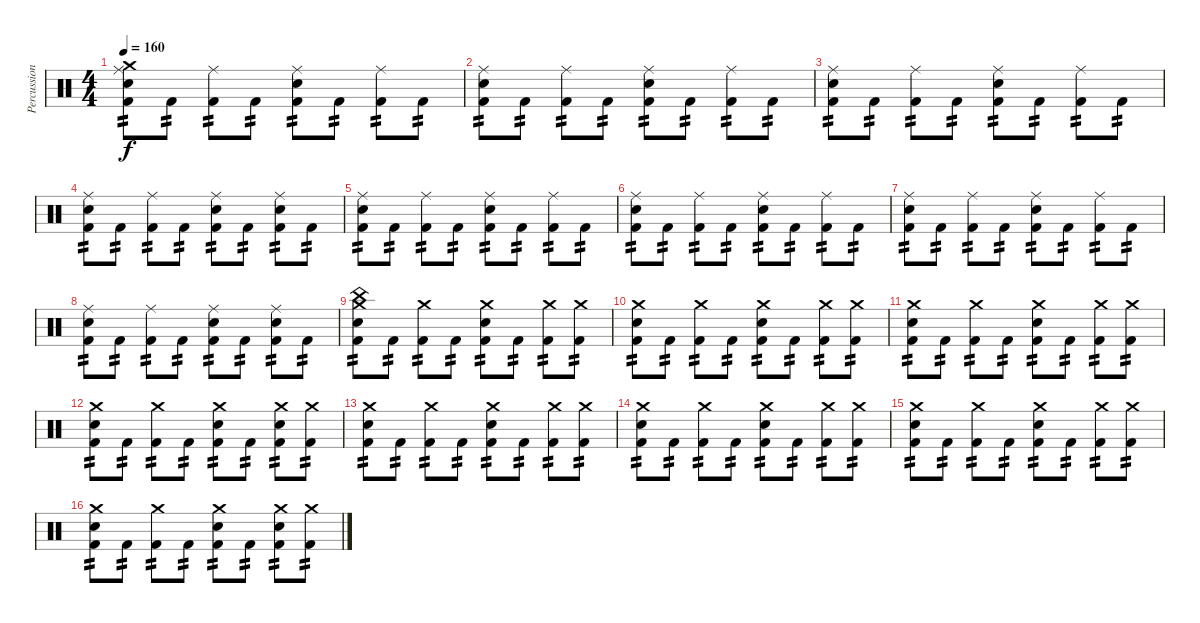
\track ("Percussion" "Percussion") {instrument percussion}
\staff {score}
\articulation defaults
\ts (4 4)
\tempo 160
\clef neutral
\ks c
("Kick (hit) 2" "Electric Snare (hit)" "Ride (middle)" "Crash medium (hit)").8{tp 2 dy f} "Kick (hit) 2".8{tp 2} ("Kick (hit) 2" "Ride (middle)").8{tp 2} "Kick (hit) 2".8{tp 2} ("Kick (hit) 2" "Electric Snare (hit)" "Ride (middle)").8{tp 2} "Kick (hit) 2".8{tp 2} ("Kick (hit) 2" "Ride (middle)").8{tp 2} "Kick (hit) 2".8{tp 2} |
("Kick (hit) 2" "Electric Snare (hit)" "Ride (middle)").8{tp 2} "Kick (hit) 2".8{tp 2} ("Kick (hit) 2" "Ride (middle)").8{tp 2} "Kick (hit) 2".8{tp 2} ("Kick (hit) 2" "Electric Snare (hit)" "Ride (middle)").8{tp 2} "Kick (hit) 2".8{tp 2} ("Kick (hit) 2" "Ride (middle)").8{tp 2} "Kick (hit) 2".8{tp 2} |
("Kick (hit) 2" "Electric Snare (hit)" "Ride (middle)").8{tp 2} "Kick (hit) 2".8{tp 2} ("Kick (hit) 2" "Ride (middle)").8{tp 2} "Kick (hit) 2".8{tp 2} ("Kick (hit) 2" "Electric Snare (hit)" "Ride (middle)").8{tp 2} "Kick (hit) 2".8{tp 2} ("Kick (hit) 2" "Ride (middle)").8{tp 2} "Kick (hit) 2".8{tp 2} |
("Kick (hit) 2" "Electric Snare (hit)" "Ride (middle)").8{tp 2} "Kick (hit) 2".8{tp 2} ("Kick (hit) 2" "Ride (middle)").8{tp 2} "Kick (hit) 2".8{tp 2} ("Kick (hit) 2" "Electric Snare (hit)" "Ride (middle)").8{tp 2} "Kick (hit) 2".8{tp 2} ("Kick (hit) 2" "Electric Snare (hit)" "Ride (middle)").8{tp 2} "Kick (hit) 2".8{tp 2} |
("Kick (hit) 2" "Electric Snare (hit)" "Ride (middle)").8{tp 2} "Kick (hit) 2".8{tp 2} ("Kick (hit) 2" "Ride (middle)").8{tp 2} "Kick (hit) 2".8{tp 2} ("Kick (hit) 2" "Electric Snare (hit)" "Ride (middle)").8{tp 2} "Kick (hit) 2".8{tp 2} ("Kick (hit) 2" "Ride (middle)").8{tp 2} "Kick (hit) 2".8{tp 2} |
("Kick (hit) 2" "Electric Snare (hit)" "Ride (middle)").8{tp 2} "Kick (hit) 2".8{tp 2} ("Kick (hit) 2" "Ride (middle)").8{tp 2} "Kick (hit) 2".8{tp 2} ("Kick (hit) 2" "Electric Snare (hit)" "Ride (middle)").8{tp 2} "Kick (hit) 2".8{tp 2} ("Kick (hit) 2" "Ride (middle)").8{tp 2} "Kick (hit) 2".8{tp 2} |
("Kick (hit) 2" "Electric Snare (hit)" "Ride (middle)").8{tp 2} "Kick (hit) 2".8{tp 2} ("Kick (hit) 2" "Ride (middle)").8{tp 2} "Kick (hit) 2".8{tp 2} ("Kick (hit) 2" "Electric Snare (hit)" "Ride (middle)").8{tp 2} "Kick (hit) 2".8{tp 2} ("Kick (hit) 2" "Ride (middle)").8{tp 2} "Kick (hit) 2".8{tp 2} |
("Kick (hit) 2" "Electric Snare (hit)" "Ride (middle)").8{tp 2} "Kick (hit) 2".8{tp 2} ("Kick (hit) 2" "Ride (middle)").8{tp 2} "Kick (hit) 2".8{tp 2} ("Kick (hit) 2" "Electric Snare (hit)" "Ride (middle)").8{tp 2} "Kick (hit) 2".8{tp 2} ("Kick (hit) 2" "Electric Snare (hit)" "Ride (middle)").8{tp 2} "Kick (hit) 2".8{tp 2} |
("Kick (hit) 2" "Electric Snare (hit)" "Crash medium (hit)" "China (hit)").8{tp 2} "Kick (hit) 2".8{tp 2} ("Kick (hit) 2" "Crash medium (hit)").8{tp 2} "Kick (hit) 2".8{tp 2} ("Kick (hit) 2" "Electric Snare (hit)" "Crash medium (hit)").8{tp 2} "Kick (hit) 2".8{tp 2} ("Kick (hit) 2" "Crash medium (hit)").8{tp 2} ("Kick (hit) 2" "Crash medium (hit)").8{tp 2} |
("Kick (hit) 2" "Electric Snare (hit)" "Crash medium (hit)").8{tp 2} "Kick (hit) 2".8{tp 2} ("Kick (hit) 2" "Crash medium (hit)").8{tp 2} "Kick (hit) 2".8{tp 2} ("Kick (hit) 2" "Electric Snare (hit)" "Crash medium (hit)").8{tp 2} "Kick (hit) 2".8{tp 2} ("Kick (hit) 2" "Crash medium (hit)").8{tp 2} ("Kick (hit) 2" "Crash medium (hit)").8{tp 2} |
("Kick (hit) 2" "Electric Snare (hit)" "Crash medium (hit)").8{tp 2} "Kick (hit) 2".8{tp 2} ("Kick (hit) 2" "Crash medium (hit)").8{tp 2} "Kick (hit) 2".8{tp 2} ("Kick (hit) 2" "Electric Snare (hit)" "Crash medium (hit)").8{tp 2} "Kick (hit) 2".8{tp 2} ("Kick (hit) 2" "Crash medium (hit)").8{tp 2} ("Kick (hit) 2" "Crash medium (hit)").8{tp 2} |
("Kick (hit) 2" "Electric Snare (hit)" "Crash medium (hit)").8{tp 2} "Kick (hit) 2".8{tp 2} ("Kick (hit) 2" "Crash medium (hit)").8{tp 2} "Kick (hit) 2".8{tp 2} ("Kick (hit) 2" "Electric Snare (hit)" "Crash medium (hit)").8{tp 2} "Kick (hit) 2".8{tp 2} ("Kick (hit) 2" "Electric Snare (hit)" "Crash medium (hit)").8{tp 2} ("Kick (hit) 2" "Crash medium (hit)").8{tp 2} |
("Kick (hit) 2" "Electric Snare (hit)" "Crash medium (hit)").8{tp 2} "Kick (hit) 2".8{tp 2} ("Kick (hit) 2" "Crash medium (hit)").8{tp 2} "Kick (hit) 2".8{tp 2} ("Kick (hit) 2" "Electric Snare (hit)" "Crash medium (hit)").8{tp 2} "Kick (hit) 2".8{tp 2} ("Kick (hit) 2" "Crash medium (hit)").8{tp 2} ("Kick (hit) 2" "Crash medium (hit)").8{tp 2} |
("Kick (hit) 2" "Electric Snare (hit)" "Crash medium (hit)").8{tp 2} "Kick (hit) 2".8{tp 2} ("Kick (hit) 2" "Crash medium (hit)").8{tp 2} "Kick (hit) 2".8{tp 2} ("Kick (hit) 2" "Electric Snare (hit)" "Crash medium (hit)").8{tp 2} "Kick (hit) 2".8{tp 2} ("Kick (hit) 2" "Crash medium (hit)").8{tp 2} ("Kick (hit) 2" "Crash medium (hit)").8{tp 2} |
("Kick (hit) 2" "Electric Snare (hit)" "Crash medium (hit)").8{tp 2} "Kick (hit) 2".8{tp 2} ("Kick (hit) 2" "Crash medium (hit)").8{tp 2} "Kick (hit) 2".8{tp 2} ("Kick (hit) 2" "Electric Snare (hit)" "Crash medium (hit)").8{tp 2} "Kick (hit) 2".8{tp 2} ("Kick (hit) 2" "Crash medium (hit)").8{tp 2} ("Kick (hit) 2" "Crash medium (hit)").8{tp 2} |
("Kick (hit) 2" "Electric Snare (hit)" "Crash medium (hit)").8{tp 2} "Kick (hit) 2".8{tp 2} ("Kick (hit) 2" "Crash medium (hit)").8{tp 2} "Kick (hit) 2".8{tp 2} ("Kick (hit) 2" "Electric Snare (hit)" "Crash medium (hit)").8{tp 2} "Kick (hit) 2".8{tp 2} ("Kick (hit) 2" "Electric Snare (hit)" "Crash medium (hit)").8{tp 2} ("Kick (hit) 2" "Crash medium (hit)").8{tp 2}
